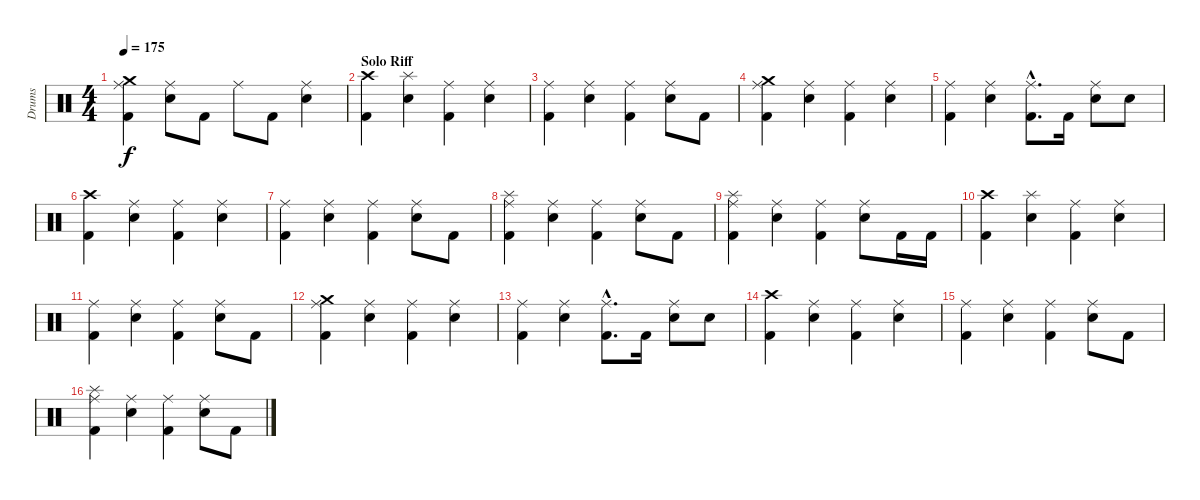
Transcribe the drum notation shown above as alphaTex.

\track ("Drums" "Drums") {instrument percussion}
\staff {score}
\articulation defaults
\ts (4 4)
\tempo 175
\clef neutral
\ks c
("Crash medium (hit)" "Ride (middle)" "Kick (hit) 2").4{dy f} ("Ride (middle)" "Snare (hit) 2").8 "Kick (hit) 2".8 "Ride (middle)".8 "Kick (hit) 2".8 ("Ride (middle)" "Snare (hit) 2").4 |
\section ("" "Solo Riff")
("Crash high (hit)" "Kick (hit) 2").4 ("Splash (hit)" "Snare (hit) 2").4 ("Ride (middle)" "Kick (hit) 2").4 ("Ride (middle)" "Snare (hit) 2").4 |
("Ride (middle)" "Kick (hit) 2").4 ("Ride (middle)" "Snare (hit) 2").4 ("Ride (middle)" "Kick (hit) 2").4 ("Ride (middle)" "Snare (hit) 2").8 "Kick (hit) 2".8 |
("Crash medium (hit)" "Ride (middle)" "Kick (hit) 2").4 ("Ride (middle)" "Snare (hit) 2").4 ("Ride (middle)" "Kick (hit) 2").4 ("Ride (middle)" "Snare (hit) 2").4 |
("Ride (middle)" "Kick (hit) 2").4 ("Ride (middle)" "Snare (hit) 2").4 ("Ride (middle)"{hac} "Kick (hit) 2"{hac}).8{d} "Kick (hit) 2".16 ("Ride (middle)" "Snare (hit) 2").8 "Snare (hit) 2".8 |
("Crash high (hit)" "Kick (hit) 2").4 ("Ride (middle)" "Snare (hit) 2").4 ("Ride (middle)" "Kick (hit) 2").4 ("Ride (middle)" "Snare (hit) 2").4 |
("Ride (middle)" "Kick (hit) 2").4 ("Ride (middle)" "Snare (hit) 2").4 ("Ride (middle)" "Kick (hit) 2").4 ("Ride (middle)" "Snare (hit) 2").8 "Kick (hit) 2".8 |
("Splash (hit)" "Ride (middle)" "Kick (hit) 2").4 ("Ride (middle)" "Snare (hit) 2").4 ("Ride (middle)" "Kick (hit) 2").4 ("Ride (middle)" "Snare (hit) 2").8 "Kick (hit) 2".8 |
("Splash (hit)" "Ride (middle)" "Kick (hit) 2").4 ("Ride (middle)" "Snare (hit) 2").4 ("Ride (middle)" "Kick (hit) 2").4 ("Ride (middle)" "Snare (hit) 2").8 "Kick (hit) 2".16 "Kick (hit) 2".16 |
("Crash high (hit)" "Kick (hit) 2").4 ("Splash (hit)" "Snare (hit) 2").4 ("Ride (middle)" "Kick (hit) 2").4 ("Ride (middle)" "Snare (hit) 2").4 |
("Ride (middle)" "Kick (hit) 2").4 ("Ride (middle)" "Snare (hit) 2").4 ("Ride (middle)" "Kick (hit) 2").4 ("Ride (middle)" "Snare (hit) 2").8 "Kick (hit) 2".8 |
("Crash medium (hit)" "Ride (middle)" "Kick (hit) 2").4 ("Ride (middle)" "Snare (hit) 2").4 ("Ride (middle)" "Kick (hit) 2").4 ("Ride (middle)" "Snare (hit) 2").4 |
("Ride (middle)" "Kick (hit) 2").4 ("Ride (middle)" "Snare (hit) 2").4 ("Ride (middle)"{hac} "Kick (hit) 2"{hac}).8{d} "Kick (hit) 2".16 ("Ride (middle)" "Snare (hit) 2").8 "Snare (hit) 2".8 |
("Crash high (hit)" "Kick (hit) 2").4 ("Ride (middle)" "Snare (hit) 2").4 ("Ride (middle)" "Kick (hit) 2").4 ("Ride (middle)" "Snare (hit) 2").4 |
("Ride (middle)" "Kick (hit) 2").4 ("Ride (middle)" "Snare (hit) 2").4 ("Ride (middle)" "Kick (hit) 2").4 ("Ride (middle)" "Snare (hit) 2").8 "Kick (hit) 2".8 |
("Splash (hit)" "Ride (middle)" "Kick (hit) 2").4 ("Ride (middle)" "Snare (hit) 2").4 ("Ride (middle)" "Kick (hit) 2").4 ("Ride (middle)" "Snare (hit) 2").8 "Kick (hit) 2".8
